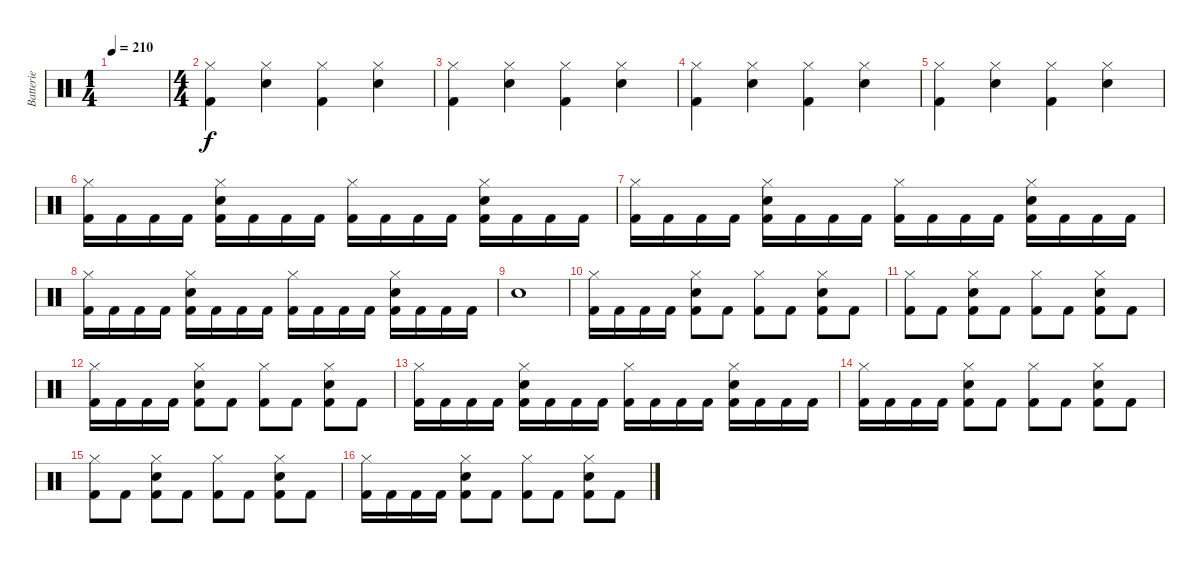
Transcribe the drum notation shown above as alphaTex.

\track ("Batterie" "Batterie") {instrument percussion}
\staff {score}
\articulation defaults
\ts (1 4)
\tempo 210
\clef neutral
\ks c
|
\ts (4 4)
("Hi-Hat (closed)" "Kick (hit) 2").4 ("Hi-Hat (closed)" "Electric Snare (hit)").4 ("Hi-Hat (closed)" "Kick (hit) 2").4 ("Hi-Hat (closed)" "Electric Snare (hit)").4 |
("Hi-Hat (closed)" "Kick (hit) 2").4 ("Hi-Hat (closed)" "Electric Snare (hit)").4 ("Hi-Hat (closed)" "Kick (hit) 2").4 ("Hi-Hat (closed)" "Electric Snare (hit)").4 |
("Hi-Hat (closed)" "Kick (hit) 2").4 ("Hi-Hat (closed)" "Electric Snare (hit)").4 ("Hi-Hat (closed)" "Kick (hit) 2").4 ("Hi-Hat (closed)" "Electric Snare (hit)").4 |
("Hi-Hat (closed)" "Kick (hit) 2").4 ("Hi-Hat (closed)" "Electric Snare (hit)").4 ("Hi-Hat (closed)" "Kick (hit) 2").4 ("Hi-Hat (closed)" "Electric Snare (hit)").4 |
("Hi-Hat (closed)" "Kick (hit) 2").16 "Kick (hit) 2".16 "Kick (hit) 2".16 "Kick (hit) 2".16 ("Hi-Hat (closed)" "Electric Snare (hit)" "Kick (hit) 2").16 "Kick (hit) 2".16 "Kick (hit) 2".16 "Kick (hit) 2".16 ("Hi-Hat (closed)" "Kick (hit) 2").16 "Kick (hit) 2".16 "Kick (hit) 2".16 "Kick (hit) 2".16 ("Hi-Hat (closed)" "Electric Snare (hit)" "Kick (hit) 2").16 "Kick (hit) 2".16 "Kick (hit) 2".16 "Kick (hit) 2".16 |
("Hi-Hat (closed)" "Kick (hit) 2").16 "Kick (hit) 2".16 "Kick (hit) 2".16 "Kick (hit) 2".16 ("Hi-Hat (closed)" "Electric Snare (hit)" "Kick (hit) 2").16 "Kick (hit) 2".16 "Kick (hit) 2".16 "Kick (hit) 2".16 ("Hi-Hat (closed)" "Kick (hit) 2").16 "Kick (hit) 2".16 "Kick (hit) 2".16 "Kick (hit) 2".16 ("Hi-Hat (closed)" "Electric Snare (hit)" "Kick (hit) 2").16 "Kick (hit) 2".16 "Kick (hit) 2".16 "Kick (hit) 2".16 |
("Hi-Hat (closed)" "Kick (hit) 2").16 "Kick (hit) 2".16 "Kick (hit) 2".16 "Kick (hit) 2".16 ("Hi-Hat (closed)" "Electric Snare (hit)" "Kick (hit) 2").16 "Kick (hit) 2".16 "Kick (hit) 2".16 "Kick (hit) 2".16 ("Hi-Hat (closed)" "Kick (hit) 2").16 "Kick (hit) 2".16 "Kick (hit) 2".16 "Kick (hit) 2".16 ("Hi-Hat (closed)" "Electric Snare (hit)" "Kick (hit) 2").16 "Kick (hit) 2".16 "Kick (hit) 2".16 "Kick (hit) 2".16 |
"Electric Snare (hit)".1 |
("Hi-Hat (closed)" "Kick (hit) 2").16 "Kick (hit) 2".16 "Kick (hit) 2".16 "Kick (hit) 2".16 ("Hi-Hat (closed)" "Electric Snare (hit)" "Kick (hit) 2").8 "Kick (hit) 2".8 ("Hi-Hat (closed)" "Kick (hit) 2").8 "Kick (hit) 2".8 ("Hi-Hat (closed)" "Electric Snare (hit)" "Kick (hit) 2").8 "Kick (hit) 2".8 |
("Hi-Hat (closed)" "Kick (hit) 2").8 "Kick (hit) 2".8 ("Hi-Hat (closed)" "Electric Snare (hit)" "Kick (hit) 2").8 "Kick (hit) 2".8 ("Hi-Hat (closed)" "Kick (hit) 2").8 "Kick (hit) 2".8 ("Hi-Hat (closed)" "Electric Snare (hit)" "Kick (hit) 2").8 "Kick (hit) 2".8 |
("Hi-Hat (closed)" "Kick (hit) 2").16 "Kick (hit) 2".16 "Kick (hit) 2".16 "Kick (hit) 2".16 ("Hi-Hat (closed)" "Electric Snare (hit)" "Kick (hit) 2").8 "Kick (hit) 2".8 ("Hi-Hat (closed)" "Kick (hit) 2").8 "Kick (hit) 2".8 ("Hi-Hat (closed)" "Electric Snare (hit)" "Kick (hit) 2").8 "Kick (hit) 2".8 |
("Hi-Hat (closed)" "Kick (hit) 2").16 "Kick (hit) 2".16 "Kick (hit) 2".16 "Kick (hit) 2".16 ("Hi-Hat (closed)" "Electric Snare (hit)" "Kick (hit) 2").16 "Kick (hit) 2".16 "Kick (hit) 2".16 "Kick (hit) 2".16 ("Hi-Hat (closed)" "Kick (hit) 2").16 "Kick (hit) 2".16 "Kick (hit) 2".16 "Kick (hit) 2".16 ("Hi-Hat (closed)" "Electric Snare (hit)" "Kick (hit) 2").16 "Kick (hit) 2".16 "Kick (hit) 2".16 "Kick (hit) 2".16 |
("Hi-Hat (closed)" "Kick (hit) 2").16 "Kick (hit) 2".16 "Kick (hit) 2".16 "Kick (hit) 2".16 ("Hi-Hat (closed)" "Electric Snare (hit)" "Kick (hit) 2").8 "Kick (hit) 2".8 ("Hi-Hat (closed)" "Kick (hit) 2").8 "Kick (hit) 2".8 ("Hi-Hat (closed)" "Electric Snare (hit)" "Kick (hit) 2").8 "Kick (hit) 2".8 |
("Hi-Hat (closed)" "Kick (hit) 2").8 "Kick (hit) 2".8 ("Hi-Hat (closed)" "Electric Snare (hit)" "Kick (hit) 2").8 "Kick (hit) 2".8 ("Hi-Hat (closed)" "Kick (hit) 2").8 "Kick (hit) 2".8 ("Hi-Hat (closed)" "Electric Snare (hit)" "Kick (hit) 2").8 "Kick (hit) 2".8 |
("Hi-Hat (closed)" "Kick (hit) 2").16 "Kick (hit) 2".16 "Kick (hit) 2".16 "Kick (hit) 2".16 ("Hi-Hat (closed)" "Electric Snare (hit)" "Kick (hit) 2").8 "Kick (hit) 2".8 ("Hi-Hat (closed)" "Kick (hit) 2").8 "Kick (hit) 2".8 ("Hi-Hat (closed)" "Electric Snare (hit)" "Kick (hit) 2").8 "Kick (hit) 2".8
